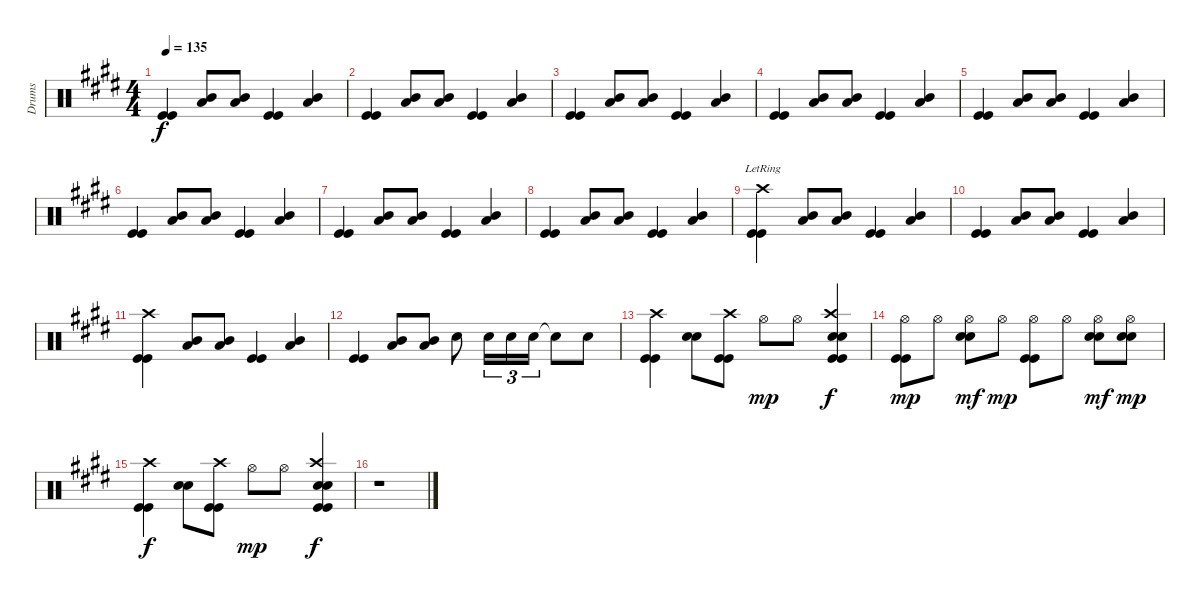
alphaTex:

\track ("Drums" "Drums") {instrument percussion}
\staff {score}
\articulation defaults
\ts (4 4)
\tempo 135
\clef neutral
\ks e
("Kick (hit)" "Kick (hit)").4{dy f} ("Low Tom (hit)" "Mid Tom (hit)").8 ("Low Tom (hit)" "Mid Tom (hit)").8 ("Kick (hit)" "Kick (hit)").4 ("Low Tom (hit)" "Mid Tom (hit)").4 |
("Kick (hit)" "Kick (hit)").4 ("Low Tom (hit)" "Mid Tom (hit)").8 ("Low Tom (hit)" "Mid Tom (hit)").8 ("Kick (hit)" "Kick (hit)").4 ("Low Tom (hit)" "Mid Tom (hit)").4 |
("Kick (hit)" "Kick (hit)").4 ("Low Tom (hit)" "Mid Tom (hit)").8 ("Low Tom (hit)" "Mid Tom (hit)").8 ("Kick (hit)" "Kick (hit)").4 ("Low Tom (hit)" "Mid Tom (hit)").4 |
("Kick (hit)" "Kick (hit)").4 ("Low Tom (hit)" "Mid Tom (hit)").8 ("Low Tom (hit)" "Mid Tom (hit)").8 ("Kick (hit)" "Kick (hit)").4 ("Low Tom (hit)" "Mid Tom (hit)").4 |
("Kick (hit)" "Kick (hit)").4 ("Low Tom (hit)" "Mid Tom (hit)").8 ("Low Tom (hit)" "Mid Tom (hit)").8 ("Kick (hit)" "Kick (hit)").4 ("Low Tom (hit)" "Mid Tom (hit)").4 |
("Kick (hit)" "Kick (hit)").4 ("Low Tom (hit)" "Mid Tom (hit)").8 ("Low Tom (hit)" "Mid Tom (hit)").8 ("Kick (hit)" "Kick (hit)").4 ("Low Tom (hit)" "Mid Tom (hit)").4 |
("Kick (hit)" "Kick (hit)").4 ("Low Tom (hit)" "Mid Tom (hit)").8 ("Low Tom (hit)" "Mid Tom (hit)").8 ("Kick (hit)" "Kick (hit)").4 ("Low Tom (hit)" "Mid Tom (hit)").4 |
("Kick (hit)" "Kick (hit)").4 ("Low Tom (hit)" "Mid Tom (hit)").8 ("Low Tom (hit)" "Mid Tom (hit)").8 ("Kick (hit)" "Kick (hit)").4 ("Low Tom (hit)" "Mid Tom (hit)").4 |
("Crash high (hit)"{lr} "Kick (hit)" "Kick (hit)").4 ("Low Tom (hit)" "Mid Tom (hit)").8 ("Low Tom (hit)" "Mid Tom (hit)").8 ("Kick (hit)" "Kick (hit)").4 ("Low Tom (hit)" "Mid Tom (hit)").4 |
("Kick (hit)" "Kick (hit)").4 ("Low Tom (hit)" "Mid Tom (hit)").8 ("Low Tom (hit)" "Mid Tom (hit)").8 ("Kick (hit)" "Kick (hit)").4 ("Low Tom (hit)" "Mid Tom (hit)").4 |
("Crash high (hit)" "Kick (hit)" "Kick (hit)").4 ("Low Tom (hit)" "Mid Tom (hit)").8 ("Low Tom (hit)" "Mid Tom (hit)").8 ("Kick (hit)" "Kick (hit)").4 ("Low Tom (hit)" "Mid Tom (hit)").4 |
("Kick (hit)" "Kick (hit)").4 ("Low Tom (hit)" "Mid Tom (hit)").8 ("Low Tom (hit)" "Mid Tom (hit)").8 "Snare (hit) 2".8 "Snare (hit) 2".16{tu (3 2)} "Snare (hit) 2".16{tu (3 2)} "Snare (hit) 2".16{tu (3 2)} "Snare (hit)"{t}.8 "Snare (hit) 2".8 |
("Crash high (hit)" "Kick (hit)" "Kick (hit)").4 ("Snare (hit) 2" "Snare (hit) 2").8 ("Crash high (hit)" "Kick (hit)" "Kick (hit)").8 "Hi-Hat (open)".8{dy mp} "Hi-Hat (open)".8 ("Crash high (hit)" "Snare (hit) 2" "Snare (hit) 2" "Kick (hit)" "Kick (hit)").4{dy f} |
("Hi-Hat (open)" "Kick (hit)" "Kick (hit)").8{dy mp} "Hi-Hat (open)".8 ("Hi-Hat (open)" "Snare (hit) 2" "Snare (hit) 2").8{dy mf} "Hi-Hat (open)".8{dy mp} ("Hi-Hat (open)" "Kick (hit)" "Kick (hit)").8 "Hi-Hat (open)".8 ("Hi-Hat (open)" "Snare (hit) 2" "Snare (hit) 2").8{dy mf} ("Hi-Hat (open)" "Snare (hit) 2" "Snare (hit) 2").8{dy mp} |
("Crash high (hit)" "Kick (hit)" "Kick (hit)").4{dy f} ("Snare (hit) 2" "Snare (hit) 2").8 ("Crash high (hit)" "Kick (hit)" "Kick (hit)").8 "Hi-Hat (open)".8{dy mp} "Hi-Hat (open)".8 ("Crash high (hit)" "Snare (hit) 2" "Snare (hit) 2" "Kick (hit)" "Kick (hit)").4{dy f} |
r.1
